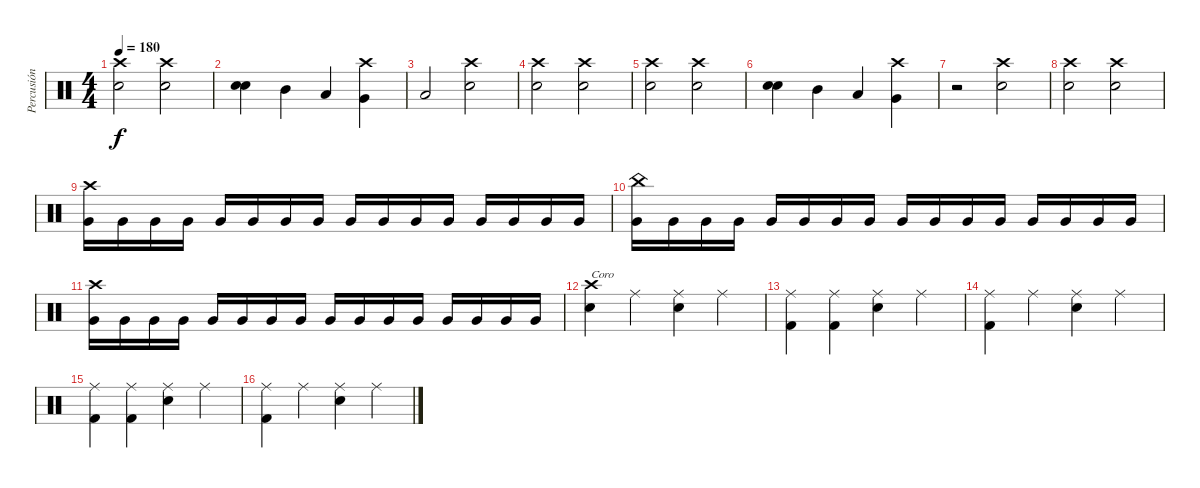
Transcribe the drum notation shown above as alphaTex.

\track ("Percusión" "Percusión") {instrument percussion}
\staff {score}
\articulation defaults
\ts (4 4)
\tempo 180
\clef neutral
\ks c
("Snare (hit) 2" "Crash high (hit)").2{dy f} ("Crash high (hit)" "Snare (hit) 2").2 |
("Snare (hit) 2" "Snare (hit) 2").4{bu 240} "Mid Tom (hit)".4 "Low Tom (hit)".4 ("Crash high (hit)" "Very Low Tom (hit)").4 |
"Low Tom (hit)".2 ("Crash high (hit)" "Snare (hit) 2").2 |
("Snare (hit) 2" "Crash high (hit)").2 ("Crash high (hit)" "Snare (hit) 2").2 |
("Snare (hit) 2" "Crash high (hit)").2 ("Crash high (hit)" "Snare (hit) 2").2 |
("Snare (hit) 2" "Snare (hit) 2").4{bu 240} "Mid Tom (hit)".4 "Low Tom (hit)".4 ("Crash high (hit)" "Very Low Tom (hit)").4 |
r.2 ("Crash high (hit)" "Snare (hit) 2").2 |
("Snare (hit) 2" "Crash high (hit)").2 ("Crash high (hit)" "Snare (hit) 2").2 |
("Crash high (hit)" "Very Low Tom (hit)").16 "Very Low Tom (hit)".16 "Very Low Tom (hit)".16 "Very Low Tom (hit)".16 "Very Low Tom (hit)".16 "Very Low Tom (hit)".16 "Very Low Tom (hit)".16 "Very Low Tom (hit)".16 "Very Low Tom (hit)".16 "Very Low Tom (hit)".16 "Very Low Tom (hit)".16 "Very Low Tom (hit)".16 "Very Low Tom (hit)".16 "Very Low Tom (hit)".16 "Very Low Tom (hit)".16 "Very Low Tom (hit)".16 |
("China (hit)" "Very Low Tom (hit)").16 "Very Low Tom (hit)".16 "Very Low Tom (hit)".16 "Very Low Tom (hit)".16 "Very Low Tom (hit)".16 "Very Low Tom (hit)".16 "Very Low Tom (hit)".16 "Very Low Tom (hit)".16 "Very Low Tom (hit)".16 "Very Low Tom (hit)".16 "Very Low Tom (hit)".16 "Very Low Tom (hit)".16 "Very Low Tom (hit)".16 "Very Low Tom (hit)".16 "Very Low Tom (hit)".16 "Very Low Tom (hit)".16 |
("Crash high (hit)" "Very Low Tom (hit)").16 "Very Low Tom (hit)".16 "Very Low Tom (hit)".16 "Very Low Tom (hit)".16 "Very Low Tom (hit)".16 "Very Low Tom (hit)".16 "Very Low Tom (hit)".16 "Very Low Tom (hit)".16 "Very Low Tom (hit)".16 "Very Low Tom (hit)".16 "Very Low Tom (hit)".16 "Very Low Tom (hit)".16 "Very Low Tom (hit)".16 "Very Low Tom (hit)".16 "Very Low Tom (hit)".16 "Very Low Tom (hit)".16 |
("Crash high (hit)" "Snare (hit) 2").4{txt "Coro"} "Ride (middle)".4 ("Ride (middle)" "Snare (hit) 2").4 "Ride (middle)".4 |
("Ride (middle)" "Kick (hit) 2").4 ("Ride (middle)" "Kick (hit) 2").4 ("Ride (middle)" "Snare (hit) 2").4 "Ride (middle)".4 |
("Ride (middle)" "Kick (hit) 2").4 "Ride (middle)".4 ("Ride (middle)" "Snare (hit) 2").4 "Ride (middle)".4 |
("Ride (middle)" "Kick (hit) 2").4 ("Ride (middle)" "Kick (hit) 2").4 ("Ride (middle)" "Snare (hit) 2").4 "Ride (middle)".4 |
("Ride (middle)" "Kick (hit) 2").4 "Ride (middle)".4 ("Ride (middle)" "Snare (hit) 2").4 "Ride (middle)".4
